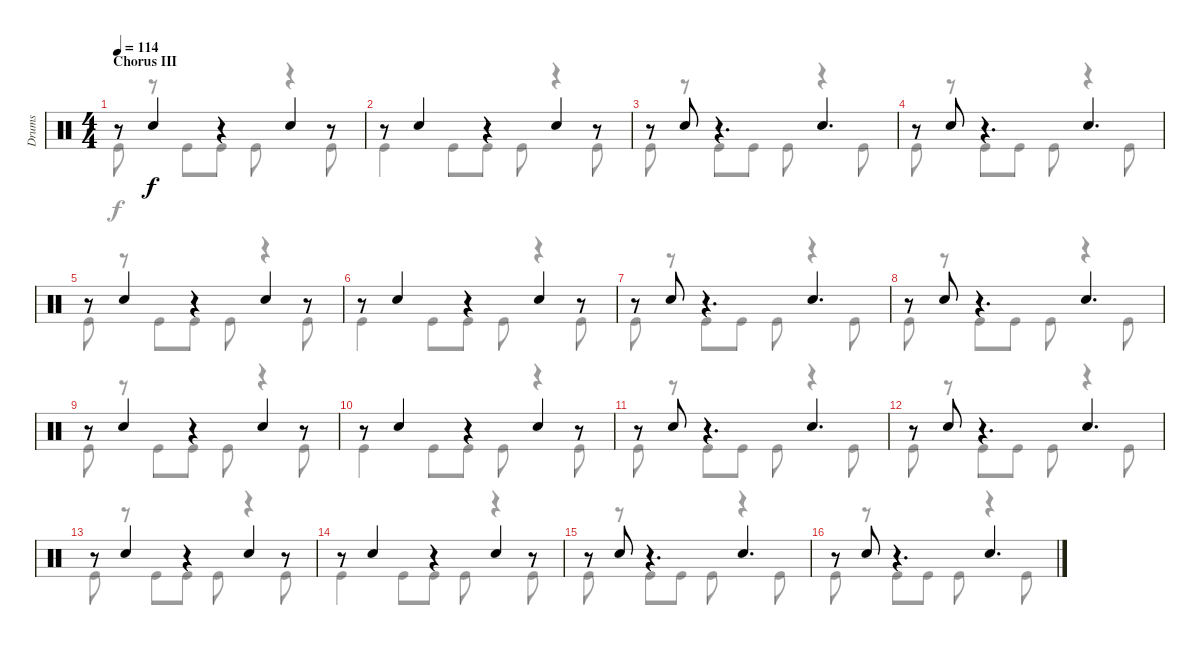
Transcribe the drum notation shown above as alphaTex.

\track ("Drums" "Drums") {instrument percussion}
\staff {score}
\articulation defaults
\voice
\ts (4 4)
\section ("" "Chorus III")
\tempo 114
\clef neutral
\ks c
r.8{dy f} "Snare (hit) 2".4 r.4 "Snare (hit) 2".4 r.8 |
r.8 "Snare (hit) 2".4 r.4 "Snare (hit) 2".4 r.8 |
r.8 "Snare (hit) 2".8 r.4{d} "Snare (hit) 2".4{d} |
r.8 "Snare (hit) 2".8 r.4{d} "Snare (hit) 2".4{d} |
r.8 "Snare (hit) 2".4 r.4 "Snare (hit) 2".4 r.8 |
r.8 "Snare (hit) 2".4 r.4 "Snare (hit) 2".4 r.8 |
r.8 "Snare (hit) 2".8 r.4{d} "Snare (hit) 2".4{d} |
r.8 "Snare (hit) 2".8 r.4{d} "Snare (hit) 2".4{d} |
r.8 "Snare (hit) 2".4 r.4 "Snare (hit) 2".4 r.8 |
r.8 "Snare (hit) 2".4 r.4 "Snare (hit) 2".4 r.8 |
r.8 "Snare (hit) 2".8 r.4{d} "Snare (hit) 2".4{d} |
r.8 "Snare (hit) 2".8 r.4{d} "Snare (hit) 2".4{d} |
r.8 "Snare (hit) 2".4 r.4 "Snare (hit) 2".4 r.8 |
r.8 "Snare (hit) 2".4 r.4 "Snare (hit) 2".4 r.8 |
r.8 "Snare (hit) 2".8 r.4{d} "Snare (hit) 2".4{d} |
r.8 "Snare (hit) 2".8 r.4{d} "Snare (hit) 2".4{d}
\voice
\clef neutral
\ottava regular
\simile none
\ks c "Kick (hit)".8{dy f}
r.8 "Kick (hit)".8 "Kick (hit)".8 "Kick (hit)".8 r.4 "Kick (hit)".8 |
"Kick (hit)".4 "Kick (hit)".8 "Kick (hit)".8 "Kick (hit)".8 r.4 "Kick (hit)".8 |
"Kick (hit)".8 r.8 "Kick (hit)".8 "Kick (hit)".8 "Kick (hit)".8 r.4 "Kick (hit)".8 |
"Kick (hit)".8 r.8 "Kick (hit)".8 "Kick (hit)".8 "Kick (hit)".8 r.4 "Kick (hit)".8 |
"Kick (hit)".8 r.8 "Kick (hit)".8 "Kick (hit)".8 "Kick (hit)".8 r.4 "Kick (hit)".8 |
"Kick (hit)".4 "Kick (hit)".8 "Kick (hit)".8 "Kick (hit)".8 r.4 "Kick (hit)".8 |
"Kick (hit)".8 r.8 "Kick (hit)".8 "Kick (hit)".8 "Kick (hit)".8 r.4 "Kick (hit)".8 |
"Kick (hit)".8 r.8 "Kick (hit)".8 "Kick (hit)".8 "Kick (hit)".8 r.4 "Kick (hit)".8 |
"Kick (hit)".8 r.8 "Kick (hit)".8 "Kick (hit)".8 "Kick (hit)".8 r.4 "Kick (hit)".8 |
"Kick (hit)".4 "Kick (hit)".8 "Kick (hit)".8 "Kick (hit)".8 r.4 "Kick (hit)".8 |
"Kick (hit)".8 r.8 "Kick (hit)".8 "Kick (hit)".8 "Kick (hit)".8 r.4 "Kick (hit)".8 |
"Kick (hit)".8 r.8 "Kick (hit)".8 "Kick (hit)".8 "Kick (hit)".8 r.4 "Kick (hit)".8 |
"Kick (hit)".8 r.8 "Kick (hit)".8 "Kick (hit)".8 "Kick (hit)".8 r.4 "Kick (hit)".8 |
"Kick (hit)".4 "Kick (hit)".8 "Kick (hit)".8 "Kick (hit)".8 r.4 "Kick (hit)".8 |
"Kick (hit)".8 r.8 "Kick (hit)".8 "Kick (hit)".8 "Kick (hit)".8 r.4 "Kick (hit)".8 |
"Kick (hit)".8 r.8 "Kick (hit)".8 "Kick (hit)".8 "Kick (hit)".8 r.4 "Kick (hit)".8
